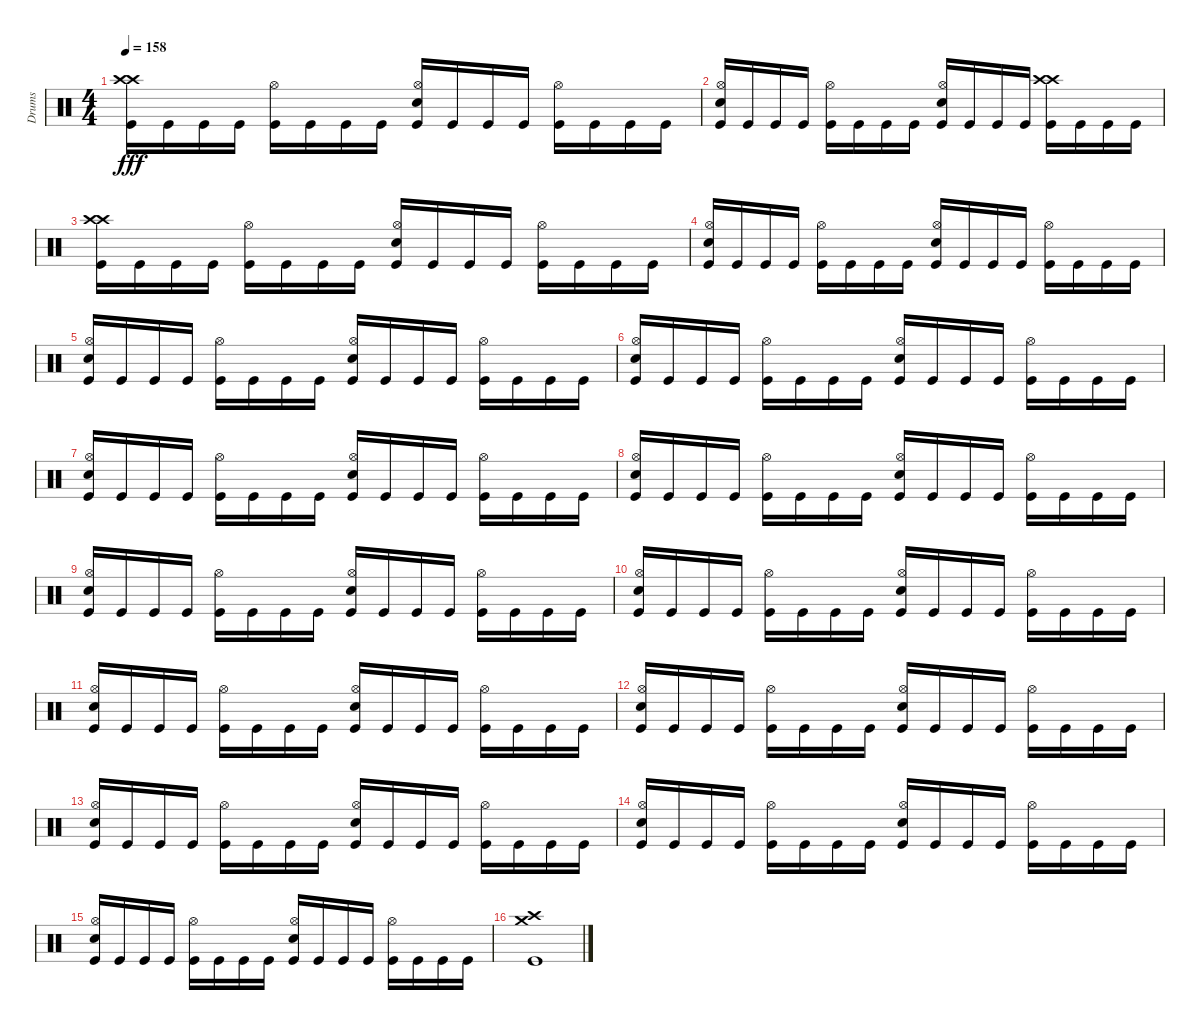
\track ("Drums" "Drums") {instrument percussion}
\staff {score}
\articulation defaults
\ts (4 4)
\tempo 158
\clef neutral
\ks c
("Crash high (hit)" "Crash high (hit)" "Kick (hit)").16{dy fff} "Kick (hit)".16 "Kick (hit)".16 "Kick (hit)".16 ("Hi-Hat (open)" "Kick (hit)").16 "Kick (hit)".16 "Kick (hit)".16 "Kick (hit)".16 ("Electric Snare (hit)" "Hi-Hat (open)" "Kick (hit)").16 "Kick (hit)".16 "Kick (hit)".16 "Kick (hit)".16 ("Hi-Hat (open)" "Kick (hit)").16 "Kick (hit)".16 "Kick (hit)".16 "Kick (hit)".16 |
("Electric Snare (hit)" "Hi-Hat (open)" "Kick (hit)").16 "Kick (hit)".16 "Kick (hit)".16 "Kick (hit)".16 ("Hi-Hat (open)" "Kick (hit)").16 "Kick (hit)".16 "Kick (hit)".16 "Kick (hit)".16 ("Electric Snare (hit)" "Hi-Hat (open)" "Kick (hit)").16 "Kick (hit)".16 "Kick (hit)".16 "Kick (hit)".16 ("Crash high (hit)" "Crash high (hit)" "Kick (hit)").16 "Kick (hit)".16 "Kick (hit)".16 "Kick (hit)".16 |
("Crash high (hit)" "Crash high (hit)" "Kick (hit)").16 "Kick (hit)".16 "Kick (hit)".16 "Kick (hit)".16 ("Hi-Hat (open)" "Kick (hit)").16 "Kick (hit)".16 "Kick (hit)".16 "Kick (hit)".16 ("Electric Snare (hit)" "Hi-Hat (open)" "Kick (hit)").16 "Kick (hit)".16 "Kick (hit)".16 "Kick (hit)".16 ("Hi-Hat (open)" "Kick (hit)").16 "Kick (hit)".16 "Kick (hit)".16 "Kick (hit)".16 |
("Electric Snare (hit)" "Hi-Hat (open)" "Kick (hit)").16 "Kick (hit)".16 "Kick (hit)".16 "Kick (hit)".16 ("Hi-Hat (open)" "Kick (hit)").16 "Kick (hit)".16 "Kick (hit)".16 "Kick (hit)".16 ("Electric Snare (hit)" "Hi-Hat (open)" "Kick (hit)").16 "Kick (hit)".16 "Kick (hit)".16 "Kick (hit)".16 ("Hi-Hat (open)" "Kick (hit)").16 "Kick (hit)".16 "Kick (hit)".16 "Kick (hit)".16 |
("Electric Snare (hit)" "Hi-Hat (open)" "Kick (hit)").16 "Kick (hit)".16 "Kick (hit)".16 "Kick (hit)".16 ("Hi-Hat (open)" "Kick (hit)").16 "Kick (hit)".16 "Kick (hit)".16 "Kick (hit)".16 ("Electric Snare (hit)" "Hi-Hat (open)" "Kick (hit)").16 "Kick (hit)".16 "Kick (hit)".16 "Kick (hit)".16 ("Hi-Hat (open)" "Kick (hit)").16 "Kick (hit)".16 "Kick (hit)".16 "Kick (hit)".16 |
("Electric Snare (hit)" "Hi-Hat (open)" "Kick (hit)").16 "Kick (hit)".16 "Kick (hit)".16 "Kick (hit)".16 ("Hi-Hat (open)" "Kick (hit)").16 "Kick (hit)".16 "Kick (hit)".16 "Kick (hit)".16 ("Electric Snare (hit)" "Hi-Hat (open)" "Kick (hit)").16 "Kick (hit)".16 "Kick (hit)".16 "Kick (hit)".16 ("Hi-Hat (open)" "Kick (hit)").16 "Kick (hit)".16 "Kick (hit)".16 "Kick (hit)".16 |
("Electric Snare (hit)" "Hi-Hat (open)" "Kick (hit)").16 "Kick (hit)".16 "Kick (hit)".16 "Kick (hit)".16 ("Hi-Hat (open)" "Kick (hit)").16 "Kick (hit)".16 "Kick (hit)".16 "Kick (hit)".16 ("Electric Snare (hit)" "Hi-Hat (open)" "Kick (hit)").16 "Kick (hit)".16 "Kick (hit)".16 "Kick (hit)".16 ("Hi-Hat (open)" "Kick (hit)").16 "Kick (hit)".16 "Kick (hit)".16 "Kick (hit)".16 |
("Electric Snare (hit)" "Hi-Hat (open)" "Kick (hit)").16 "Kick (hit)".16 "Kick (hit)".16 "Kick (hit)".16 ("Hi-Hat (open)" "Kick (hit)").16 "Kick (hit)".16 "Kick (hit)".16 "Kick (hit)".16 ("Electric Snare (hit)" "Hi-Hat (open)" "Kick (hit)").16 "Kick (hit)".16 "Kick (hit)".16 "Kick (hit)".16 ("Hi-Hat (open)" "Kick (hit)").16 "Kick (hit)".16 "Kick (hit)".16 "Kick (hit)".16 |
("Electric Snare (hit)" "Hi-Hat (open)" "Kick (hit)").16 "Kick (hit)".16 "Kick (hit)".16 "Kick (hit)".16 ("Hi-Hat (open)" "Kick (hit)").16 "Kick (hit)".16 "Kick (hit)".16 "Kick (hit)".16 ("Electric Snare (hit)" "Hi-Hat (open)" "Kick (hit)").16 "Kick (hit)".16 "Kick (hit)".16 "Kick (hit)".16 ("Hi-Hat (open)" "Kick (hit)").16 "Kick (hit)".16 "Kick (hit)".16 "Kick (hit)".16 |
("Electric Snare (hit)" "Hi-Hat (open)" "Kick (hit)").16 "Kick (hit)".16 "Kick (hit)".16 "Kick (hit)".16 ("Hi-Hat (open)" "Kick (hit)").16 "Kick (hit)".16 "Kick (hit)".16 "Kick (hit)".16 ("Electric Snare (hit)" "Hi-Hat (open)" "Kick (hit)").16 "Kick (hit)".16 "Kick (hit)".16 "Kick (hit)".16 ("Hi-Hat (open)" "Kick (hit)").16 "Kick (hit)".16 "Kick (hit)".16 "Kick (hit)".16 |
("Electric Snare (hit)" "Hi-Hat (open)" "Kick (hit)").16 "Kick (hit)".16 "Kick (hit)".16 "Kick (hit)".16 ("Hi-Hat (open)" "Kick (hit)").16 "Kick (hit)".16 "Kick (hit)".16 "Kick (hit)".16 ("Electric Snare (hit)" "Hi-Hat (open)" "Kick (hit)").16 "Kick (hit)".16 "Kick (hit)".16 "Kick (hit)".16 ("Hi-Hat (open)" "Kick (hit)").16 "Kick (hit)".16 "Kick (hit)".16 "Kick (hit)".16 |
("Electric Snare (hit)" "Hi-Hat (open)" "Kick (hit)").16 "Kick (hit)".16 "Kick (hit)".16 "Kick (hit)".16 ("Hi-Hat (open)" "Kick (hit)").16 "Kick (hit)".16 "Kick (hit)".16 "Kick (hit)".16 ("Electric Snare (hit)" "Hi-Hat (open)" "Kick (hit)").16 "Kick (hit)".16 "Kick (hit)".16 "Kick (hit)".16 ("Hi-Hat (open)" "Kick (hit)").16 "Kick (hit)".16 "Kick (hit)".16 "Kick (hit)".16 |
("Electric Snare (hit)" "Hi-Hat (open)" "Kick (hit)").16 "Kick (hit)".16 "Kick (hit)".16 "Kick (hit)".16 ("Hi-Hat (open)" "Kick (hit)").16 "Kick (hit)".16 "Kick (hit)".16 "Kick (hit)".16 ("Electric Snare (hit)" "Hi-Hat (open)" "Kick (hit)").16 "Kick (hit)".16 "Kick (hit)".16 "Kick (hit)".16 ("Hi-Hat (open)" "Kick (hit)").16 "Kick (hit)".16 "Kick (hit)".16 "Kick (hit)".16 |
("Electric Snare (hit)" "Hi-Hat (open)" "Kick (hit)").16 "Kick (hit)".16 "Kick (hit)".16 "Kick (hit)".16 ("Hi-Hat (open)" "Kick (hit)").16 "Kick (hit)".16 "Kick (hit)".16 "Kick (hit)".16 ("Electric Snare (hit)" "Hi-Hat (open)" "Kick (hit)").16 "Kick (hit)".16 "Kick (hit)".16 "Kick (hit)".16 ("Hi-Hat (open)" "Kick (hit)").16 "Kick (hit)".16 "Kick (hit)".16 "Kick (hit)".16 |
("Electric Snare (hit)" "Hi-Hat (open)" "Kick (hit)").16 "Kick (hit)".16 "Kick (hit)".16 "Kick (hit)".16 ("Hi-Hat (open)" "Kick (hit)").16 "Kick (hit)".16 "Kick (hit)".16 "Kick (hit)".16 ("Electric Snare (hit)" "Hi-Hat (open)" "Kick (hit)").16 "Kick (hit)".16 "Kick (hit)".16 "Kick (hit)".16 ("Hi-Hat (open)" "Kick (hit)").16 "Kick (hit)".16 "Kick (hit)".16 "Kick (hit)".16 |
("Crash medium (hit)" "Crash high (hit)" "Kick (hit)").1
